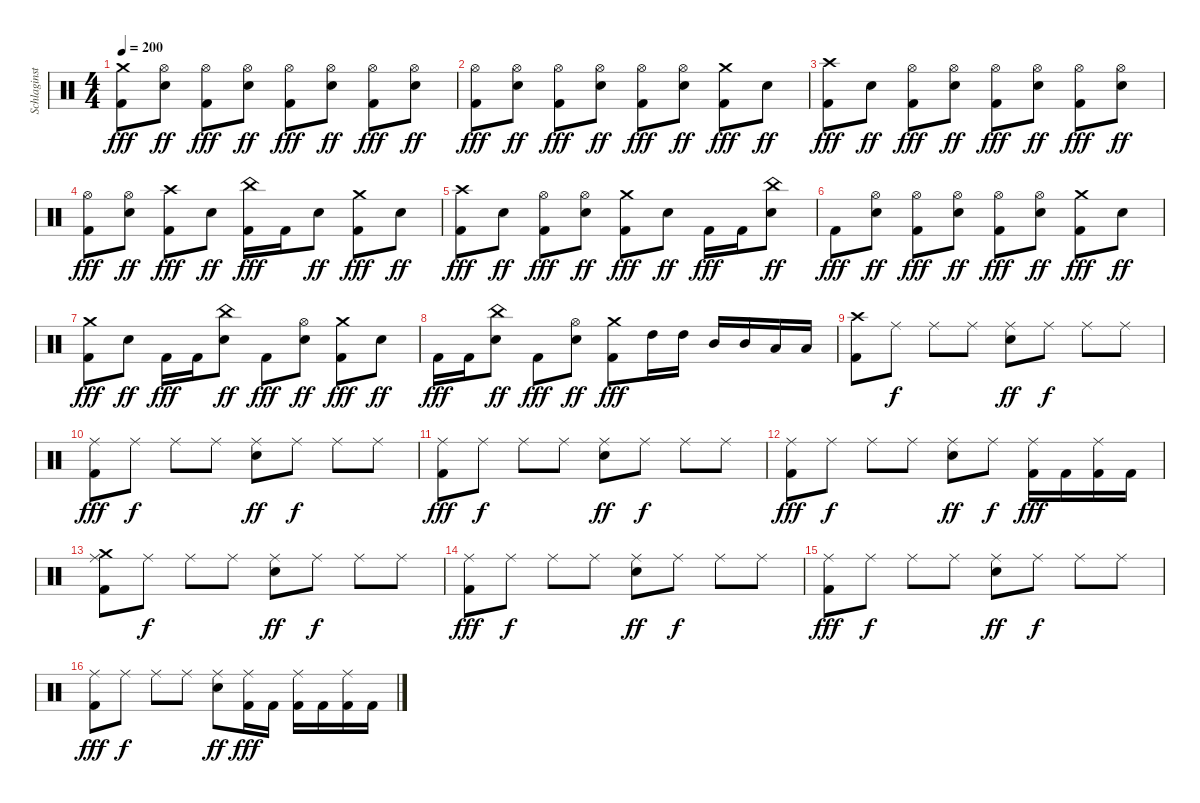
\track ("Schlaginstrumente - Auswahl" "Schlaginst") {instrument percussion}
\staff {score}
\articulation defaults
\ts (4 4)
\tempo 200
\clef neutral
\ks c
("Crash medium (hit)" "Kick (hit) 2").8{dy fff} ("Hi-Hat (open)" "Snare (hit) 2").8{dy ff} ("Hi-Hat (open)" "Kick (hit) 2").8{dy fff} ("Hi-Hat (open)" "Snare (hit) 2").8{dy ff} ("Hi-Hat (open)" "Kick (hit) 2").8{dy fff} ("Hi-Hat (open)" "Snare (hit) 2").8{dy ff} ("Hi-Hat (open)" "Kick (hit) 2").8{dy fff} ("Hi-Hat (open)" "Snare (hit) 2").8{dy ff} |
("Hi-Hat (open)" "Kick (hit) 2").8{dy fff} ("Hi-Hat (open)" "Snare (hit) 2").8{dy ff} ("Hi-Hat (open)" "Kick (hit) 2").8{dy fff} ("Hi-Hat (open)" "Snare (hit) 2").8{dy ff} ("Hi-Hat (open)" "Kick (hit) 2").8{dy fff} ("Hi-Hat (open)" "Snare (hit) 2").8{dy ff} ("Crash medium (hit)" "Kick (hit) 2").8{dy fff} "Snare (hit) 2".8{dy ff} |
("Crash high (hit)" "Kick (hit) 2").8{dy fff} "Snare (hit) 2".8{dy ff} ("Hi-Hat (open)" "Kick (hit) 2").8{dy fff} ("Hi-Hat (open)" "Snare (hit) 2").8{dy ff} ("Hi-Hat (open)" "Kick (hit) 2").8{dy fff} ("Hi-Hat (open)" "Snare (hit) 2").8{dy ff} ("Hi-Hat (open)" "Kick (hit) 2").8{dy fff} ("Hi-Hat (open)" "Snare (hit) 2").8{dy ff} |
("Hi-Hat (open)" "Kick (hit) 2").8{dy fff} ("Hi-Hat (open)" "Snare (hit) 2").8{dy ff} ("Crash high (hit)" "Kick (hit) 2").8{dy fff} "Snare (hit) 2".8{dy ff} ("China (hit)" "Kick (hit) 2").16{dy fff} "Kick (hit) 2".16 "Snare (hit) 2".8{dy ff} ("Crash medium (hit)" "Kick (hit) 2").8{dy fff} "Snare (hit) 2".8{dy ff} |
("Crash high (hit)" "Kick (hit) 2").8{dy fff} "Snare (hit) 2".8{dy ff} ("Hi-Hat (open)" "Kick (hit) 2").8{dy fff} ("Hi-Hat (open)" "Snare (hit) 2").8{dy ff} ("Crash medium (hit)" "Kick (hit) 2").8{dy fff} "Snare (hit) 2".8{dy ff} "Kick (hit) 2".16{dy fff} "Kick (hit) 2".16 ("China (hit)" "Snare (hit) 2").8{dy ff} |
"Kick (hit) 2".8{dy fff} ("Hi-Hat (open)" "Snare (hit) 2").8{dy ff} ("Hi-Hat (open)" "Kick (hit) 2").8{dy fff} ("Hi-Hat (open)" "Snare (hit) 2").8{dy ff} ("Hi-Hat (open)" "Kick (hit) 2").8{dy fff} ("Hi-Hat (open)" "Snare (hit) 2").8{dy ff} ("Crash medium (hit)" "Kick (hit) 2").8{dy fff} "Snare (hit) 2".8{dy ff} |
("Crash medium (hit)" "Kick (hit) 2").8{dy fff} "Snare (hit) 2".8{dy ff} "Kick (hit) 2".16{dy fff} "Kick (hit) 2".16 ("China (hit)" "Snare (hit) 2").8{dy ff} "Kick (hit) 2".8{dy fff} ("Hi-Hat (open)" "Snare (hit) 2").8{dy ff} ("Crash medium (hit)" "Kick (hit) 2").8{dy fff} "Snare (hit) 2".8{dy ff} |
"Kick (hit) 2".16{dy fff} "Kick (hit) 2".16 ("China (hit)" "Snare (hit) 2").8{dy ff} "Kick (hit) 2".8{dy fff} ("Hi-Hat (open)" "Snare (hit) 2").8{dy ff} ("Crash medium (hit)" "Kick (hit) 2").8{dy fff} "High Tom (hit)".16 "High Tom (hit)".16 "Mid Tom (hit)".16 "Mid Tom (hit)".16 "Low Tom (hit)".16 "Low Tom (hit)".16 |
("Crash high (hit)" "Kick (hit) 2").8 "Ride (middle)".8{dy f} "Ride (middle)".8 "Ride (middle)".8 ("Ride (middle)" "Snare (hit) 2").8{dy ff} "Ride (middle)".8{dy f} "Ride (middle)".8 "Ride (middle)".8 |
("Ride (middle)" "Kick (hit) 2").8{dy fff} "Ride (middle)".8{dy f} "Ride (middle)".8 "Ride (middle)".8 ("Ride (middle)" "Snare (hit) 2").8{dy ff} "Ride (middle)".8{dy f} "Ride (middle)".8 "Ride (middle)".8 |
("Ride (middle)" "Kick (hit) 2").8{dy fff} "Ride (middle)".8{dy f} "Ride (middle)".8 "Ride (middle)".8 ("Ride (middle)" "Snare (hit) 2").8{dy ff} "Ride (middle)".8{dy f} "Ride (middle)".8 "Ride (middle)".8 |
("Ride (middle)" "Kick (hit) 2").8{dy fff} "Ride (middle)".8{dy f} "Ride (middle)".8 "Ride (middle)".8 ("Ride (middle)" "Snare (hit) 2").8{dy ff} "Ride (middle)".8{dy f} ("Ride (middle)" "Kick (hit) 2").16{dy fff} "Kick (hit) 2".16 ("Ride (middle)" "Kick (hit) 2").16 "Kick (hit) 2".16 |
("Crash medium (hit)" "Ride (middle)" "Kick (hit) 2").8 "Ride (middle)".8{dy f} "Ride (middle)".8 "Ride (middle)".8 ("Ride (middle)" "Snare (hit) 2").8{dy ff} "Ride (middle)".8{dy f} "Ride (middle)".8 "Ride (middle)".8 |
("Ride (middle)" "Kick (hit) 2").8{dy fff} "Ride (middle)".8{dy f} "Ride (middle)".8 "Ride (middle)".8 ("Ride (middle)" "Snare (hit) 2").8{dy ff} "Ride (middle)".8{dy f} "Ride (middle)".8 "Ride (middle)".8 |
("Ride (middle)" "Kick (hit) 2").8{dy fff} "Ride (middle)".8{dy f} "Ride (middle)".8 "Ride (middle)".8 ("Ride (middle)" "Snare (hit) 2").8{dy ff} "Ride (middle)".8{dy f} "Ride (middle)".8 "Ride (middle)".8 |
("Ride (middle)" "Kick (hit) 2").8{dy fff} "Ride (middle)".8{dy f} "Ride (middle)".8 "Ride (middle)".8 ("Ride (middle)" "Snare (hit) 2").8{dy ff} ("Ride (middle)" "Kick (hit) 2").16{dy fff} "Kick (hit) 2".16 ("Ride (middle)" "Kick (hit) 2").16 "Kick (hit) 2".16 ("Ride (middle)" "Kick (hit) 2").16 "Kick (hit) 2".16
